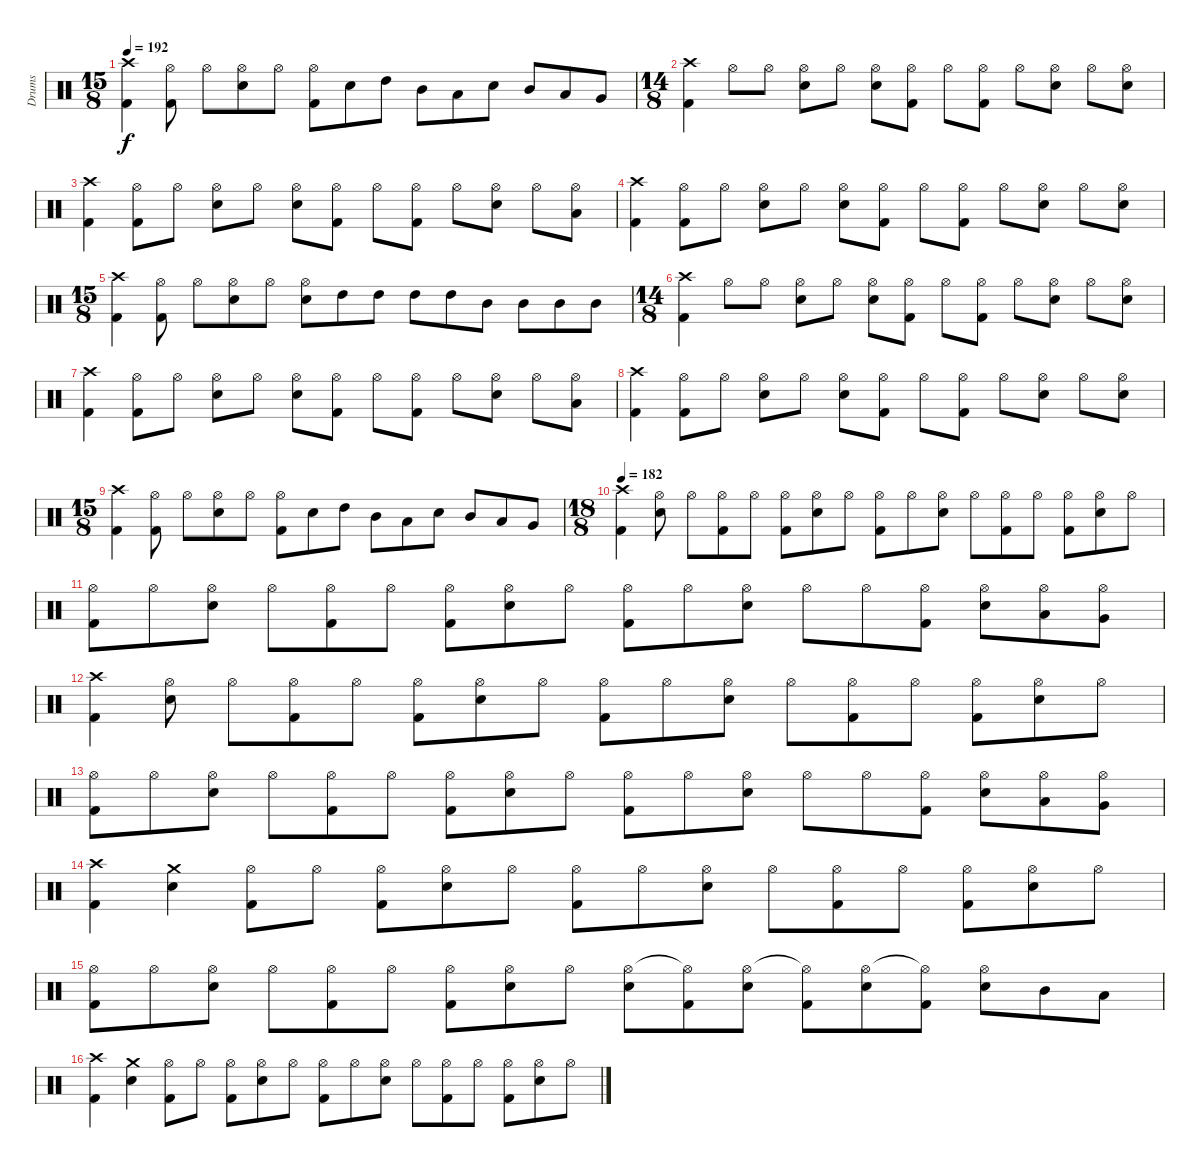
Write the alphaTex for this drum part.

\track ("Drums" "Drums") {instrument percussion}
\staff {score}
\articulation defaults
\ts (15 8)
\tempo 192
\clef neutral
\ks c
("Crash high (hit)" "Kick (hit) 2").4{dy f} ("Hi-Hat (open)" "Kick (hit) 2").8 "Hi-Hat (open)".8 ("Hi-Hat (open)" "Snare (hit) 2").8 "Hi-Hat (open)".8 ("Hi-Hat (open)" "Kick (hit) 2").8 "Snare (hit) 2".8 "High Tom (hit)".8 "Mid Tom (hit)".8 "Low Tom (hit)".8 "Snare (hit) 2".8 "Mid Tom (hit)".8 "Low Tom (hit)".8 "Very Low Tom (hit)".8 |
\ts (14 8)
("Crash high (hit)" "Kick (hit) 2").4 "Hi-Hat (open)".8 "Hi-Hat (open)".8 ("Hi-Hat (open)" "Snare (hit) 2").8 "Hi-Hat (open)".8 ("Hi-Hat (open)" "Snare (hit) 2").8 ("Hi-Hat (open)" "Kick (hit) 2").8 "Hi-Hat (open)".8 ("Hi-Hat (open)" "Kick (hit) 2").8 "Hi-Hat (open)".8 ("Hi-Hat (open)" "Snare (hit) 2").8 "Hi-Hat (open)".8 ("Hi-Hat (open)" "Snare (hit) 2").8 |
("Crash high (hit)" "Kick (hit) 2").4 ("Hi-Hat (open)" "Kick (hit) 2").8 "Hi-Hat (open)".8 ("Hi-Hat (open)" "Snare (hit) 2").8 "Hi-Hat (open)".8 ("Hi-Hat (open)" "Snare (hit) 2").8 ("Hi-Hat (open)" "Kick (hit) 2").8 "Hi-Hat (open)".8 ("Hi-Hat (open)" "Kick (hit) 2").8 "Hi-Hat (open)".8 ("Hi-Hat (open)" "Snare (hit) 2").8 "Hi-Hat (open)".8 ("Hi-Hat (open)" "Low Tom (hit)").8 |
("Crash high (hit)" "Kick (hit) 2").4 ("Hi-Hat (open)" "Kick (hit) 2").8 "Hi-Hat (open)".8 ("Hi-Hat (open)" "Snare (hit) 2").8 "Hi-Hat (open)".8 ("Hi-Hat (open)" "Snare (hit) 2").8 ("Hi-Hat (open)" "Kick (hit) 2").8 "Hi-Hat (open)".8 ("Hi-Hat (open)" "Kick (hit) 2").8 "Hi-Hat (open)".8 ("Hi-Hat (open)" "Snare (hit) 2").8 "Hi-Hat (open)".8 ("Hi-Hat (open)" "Snare (hit) 2").8 |
\ts (15 8)
("Crash high (hit)" "Kick (hit) 2").4 ("Hi-Hat (open)" "Kick (hit) 2").8 "Hi-Hat (open)".8 ("Hi-Hat (open)" "Snare (hit) 2").8 "Hi-Hat (open)".8 ("Hi-Hat (open)" "Snare (hit) 2").8 "High Tom (hit)".8 "High Tom (hit)".8 "High Tom (hit)".8 "High Tom (hit)".8 "Mid Tom (hit)".8 "Mid Tom (hit)".8 "Mid Tom (hit)".8 "Mid Tom (hit)".8 |
\ts (14 8)
("Crash high (hit)" "Kick (hit) 2").4 "Hi-Hat (open)".8 "Hi-Hat (open)".8 ("Hi-Hat (open)" "Snare (hit) 2").8 "Hi-Hat (open)".8 ("Hi-Hat (open)" "Snare (hit) 2").8 ("Hi-Hat (open)" "Kick (hit) 2").8 "Hi-Hat (open)".8 ("Hi-Hat (open)" "Kick (hit) 2").8 "Hi-Hat (open)".8 ("Hi-Hat (open)" "Snare (hit) 2").8 "Hi-Hat (open)".8 ("Hi-Hat (open)" "Snare (hit) 2").8 |
("Crash high (hit)" "Kick (hit) 2").4 ("Hi-Hat (open)" "Kick (hit) 2").8 "Hi-Hat (open)".8 ("Hi-Hat (open)" "Snare (hit) 2").8 "Hi-Hat (open)".8 ("Hi-Hat (open)" "Snare (hit) 2").8 ("Hi-Hat (open)" "Kick (hit) 2").8 "Hi-Hat (open)".8 ("Hi-Hat (open)" "Kick (hit) 2").8 "Hi-Hat (open)".8 ("Hi-Hat (open)" "Snare (hit) 2").8 "Hi-Hat (open)".8 ("Hi-Hat (open)" "Low Tom (hit)").8 |
("Crash high (hit)" "Kick (hit) 2").4 ("Hi-Hat (open)" "Kick (hit) 2").8 "Hi-Hat (open)".8 ("Hi-Hat (open)" "Snare (hit) 2").8 "Hi-Hat (open)".8 ("Hi-Hat (open)" "Snare (hit) 2").8 ("Hi-Hat (open)" "Kick (hit) 2").8 "Hi-Hat (open)".8 ("Hi-Hat (open)" "Kick (hit) 2").8 "Hi-Hat (open)".8 ("Hi-Hat (open)" "Snare (hit) 2").8 "Hi-Hat (open)".8 ("Hi-Hat (open)" "Snare (hit) 2").8 |
\ts (15 8)
("Crash high (hit)" "Kick (hit) 2").4 ("Hi-Hat (open)" "Kick (hit) 2").8 "Hi-Hat (open)".8 ("Hi-Hat (open)" "Snare (hit) 2").8 "Hi-Hat (open)".8 ("Hi-Hat (open)" "Kick (hit) 2").8 "Snare (hit) 2".8 "High Tom (hit)".8 "Mid Tom (hit)".8 "Low Tom (hit)".8 "Snare (hit) 2".8 "Mid Tom (hit)".8 "Low Tom (hit)".8 "Very Low Tom (hit)".8 |
\ts (18 8)
\tempo 182
("Crash high (hit)" "Kick (hit) 2").4 ("Hi-Hat (open)" "Snare (hit) 2").8 "Hi-Hat (open)".8 ("Hi-Hat (open)" "Kick (hit) 2").8 "Hi-Hat (open)".8 ("Hi-Hat (open)" "Kick (hit) 2").8 ("Hi-Hat (open)" "Snare (hit) 2").8 "Hi-Hat (open)".8 ("Hi-Hat (open)" "Kick (hit) 2").8 "Hi-Hat (open)".8 ("Hi-Hat (open)" "Snare (hit) 2").8 "Hi-Hat (open)".8 ("Hi-Hat (open)" "Kick (hit) 2").8 "Hi-Hat (open)".8 ("Hi-Hat (open)" "Kick (hit) 2").8 ("Hi-Hat (open)" "Snare (hit) 2").8 "Hi-Hat (open)".8 |
("Hi-Hat (open)" "Kick (hit) 2").8 "Hi-Hat (open)".8 ("Hi-Hat (open)" "Snare (hit) 2").8 "Hi-Hat (open)".8 ("Hi-Hat (open)" "Kick (hit) 2").8 "Hi-Hat (open)".8 ("Hi-Hat (open)" "Kick (hit) 2").8 ("Hi-Hat (open)" "Snare (hit) 2").8 "Hi-Hat (open)".8 ("Hi-Hat (open)" "Kick (hit) 2").8 "Hi-Hat (open)".8 ("Hi-Hat (open)" "Snare (hit) 2").8 "Hi-Hat (open)".8 "Hi-Hat (open)".8 ("Hi-Hat (open)" "Kick (hit) 2").8 ("Hi-Hat (open)" "Snare (hit) 2").8 ("Hi-Hat (open)" "Low Tom (hit)").8 ("Hi-Hat (open)" "Very Low Tom (hit)").8 |
("Crash high (hit)" "Kick (hit) 2").4 ("Hi-Hat (open)" "Snare (hit) 2").8 "Hi-Hat (open)".8 ("Hi-Hat (open)" "Kick (hit) 2").8 "Hi-Hat (open)".8 ("Hi-Hat (open)" "Kick (hit) 2").8 ("Hi-Hat (open)" "Snare (hit) 2").8 "Hi-Hat (open)".8 ("Hi-Hat (open)" "Kick (hit) 2").8 "Hi-Hat (open)".8 ("Hi-Hat (open)" "Snare (hit) 2").8 "Hi-Hat (open)".8 ("Hi-Hat (open)" "Kick (hit) 2").8 "Hi-Hat (open)".8 ("Hi-Hat (open)" "Kick (hit) 2").8 ("Hi-Hat (open)" "Snare (hit) 2").8 "Hi-Hat (open)".8 |
("Hi-Hat (open)" "Kick (hit) 2").8 "Hi-Hat (open)".8 ("Hi-Hat (open)" "Snare (hit) 2").8 "Hi-Hat (open)".8 ("Hi-Hat (open)" "Kick (hit) 2").8 "Hi-Hat (open)".8 ("Hi-Hat (open)" "Kick (hit) 2").8 ("Hi-Hat (open)" "Snare (hit) 2").8 "Hi-Hat (open)".8 ("Hi-Hat (open)" "Kick (hit) 2").8 "Hi-Hat (open)".8 ("Hi-Hat (open)" "Snare (hit) 2").8 "Hi-Hat (open)".8 "Hi-Hat (open)".8 ("Hi-Hat (open)" "Kick (hit) 2").8 ("Hi-Hat (open)" "Snare (hit) 2").8 ("Hi-Hat (open)" "Low Tom (hit)").8 ("Hi-Hat (open)" "Very Low Tom (hit)").8 |
("Crash high (hit)" "Kick (hit) 2").4 ("Crash medium (hit)" "Snare (hit) 2").4 ("Hi-Hat (open)" "Kick (hit) 2").8 "Hi-Hat (open)".8 ("Hi-Hat (open)" "Kick (hit) 2").8 ("Hi-Hat (open)" "Snare (hit) 2").8 "Hi-Hat (open)".8 ("Hi-Hat (open)" "Kick (hit) 2").8 "Hi-Hat (open)".8 ("Hi-Hat (open)" "Snare (hit) 2").8 "Hi-Hat (open)".8 ("Hi-Hat (open)" "Kick (hit) 2").8 "Hi-Hat (open)".8 ("Hi-Hat (open)" "Kick (hit) 2").8 ("Hi-Hat (open)" "Snare (hit) 2").8 "Hi-Hat (open)".8 |
("Hi-Hat (open)" "Kick (hit) 2").8 "Hi-Hat (open)".8 ("Hi-Hat (open)" "Snare (hit) 2").8 "Hi-Hat (open)".8 ("Hi-Hat (open)" "Kick (hit) 2").8 "Hi-Hat (open)".8 ("Hi-Hat (open)" "Kick (hit) 2").8 ("Hi-Hat (open)" "Snare (hit) 2").8 "Hi-Hat (open)".8 ("Hi-Hat (open)" "Snare (hit) 2").8 ("Hi-Hat (open)"{t} "Kick (hit) 2").8 ("Hi-Hat (open)" "Snare (hit) 2").8 ("Hi-Hat (open)"{t} "Kick (hit) 2").8 ("Hi-Hat (open)" "Snare (hit) 2").8 ("Hi-Hat (open)"{t} "Kick (hit) 2").8 ("Hi-Hat (open)" "Snare (hit) 2").8 "Mid Tom (hit)".8 "Low Tom (hit)".8 |
("Crash high (hit)" "Kick (hit) 2").4 ("Crash medium (hit)" "Snare (hit) 2").4 ("Hi-Hat (open)" "Kick (hit) 2").8 "Hi-Hat (open)".8 ("Hi-Hat (open)" "Kick (hit) 2").8 ("Hi-Hat (open)" "Snare (hit) 2").8 "Hi-Hat (open)".8 ("Hi-Hat (open)" "Kick (hit) 2").8 "Hi-Hat (open)".8 ("Hi-Hat (open)" "Snare (hit) 2").8 "Hi-Hat (open)".8 ("Hi-Hat (open)" "Kick (hit) 2").8 "Hi-Hat (open)".8 ("Hi-Hat (open)" "Kick (hit) 2").8 ("Hi-Hat (open)" "Snare (hit) 2").8 "Hi-Hat (open)".8
